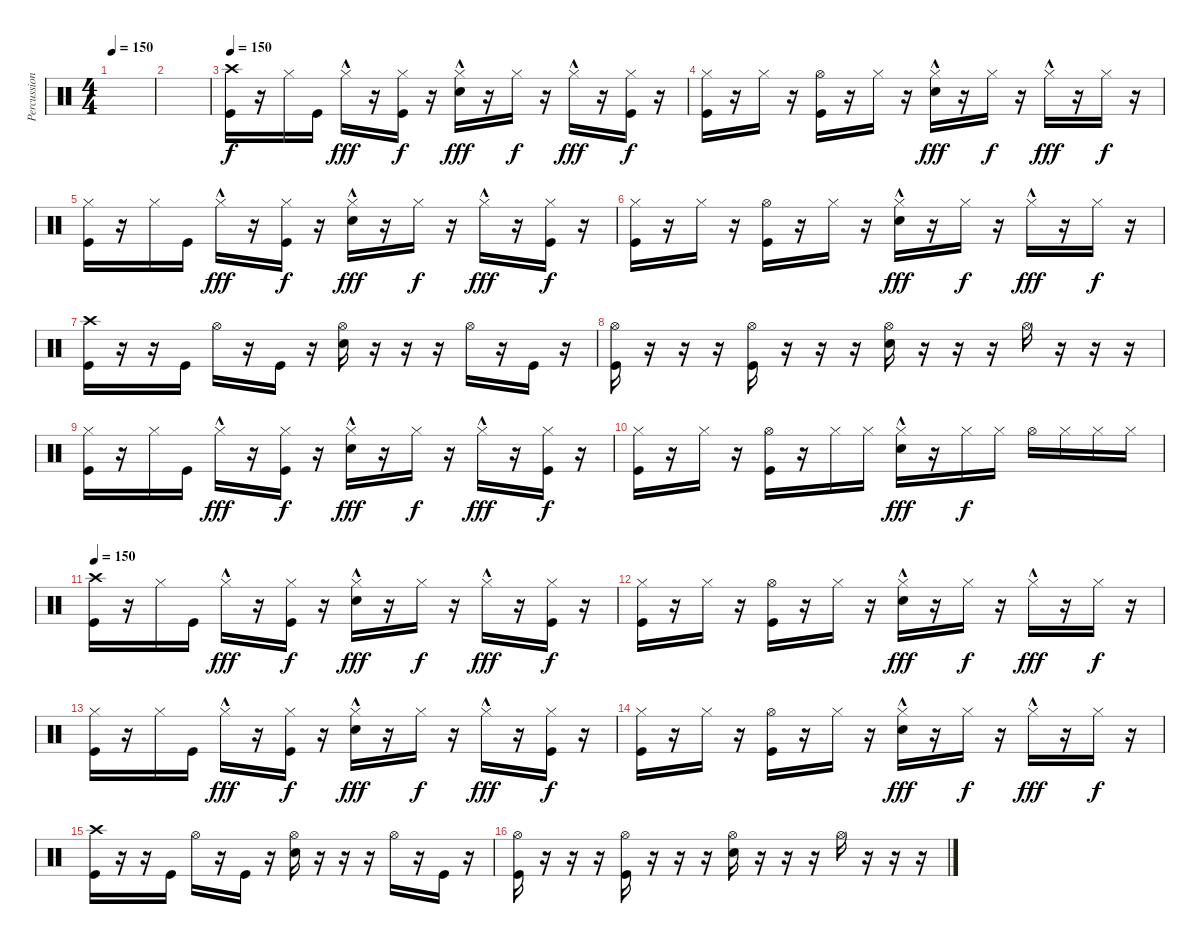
\track ("Percussion" "Percussion") {instrument percussion}
\staff {score}
\articulation defaults
\ts (4 4)
\tempo 150
\clef neutral
\ks c
|
|
\tempo 150
("Crash high (hit)" "Kick (hit)").16 r.16 "Hi-Hat (closed)".16 "Kick (hit)".16 "Hi-Hat (closed)"{hac}.16{dy fff} r.16 ("Hi-Hat (closed)" "Kick (hit)").16{dy f} r.16 ("Hi-Hat (closed)"{hac} "Electric Snare (hit)").16{dy fff} r.16 "Hi-Hat (closed)".16{dy f} r.16 "Hi-Hat (closed)"{hac}.16{dy fff} r.16 ("Hi-Hat (closed)" "Kick (hit)").16{dy f} r.16 |
("Hi-Hat (closed)" "Kick (hit)").16 r.16 "Hi-Hat (closed)".16 r.16 ("Hi-Hat (open)" "Kick (hit)").16 r.16 "Hi-Hat (closed)".16 r.16 ("Hi-Hat (closed)"{hac} "Electric Snare (hit)").16{dy fff} r.16 "Hi-Hat (closed)".16{dy f} r.16 "Hi-Hat (closed)"{hac}.16{dy fff} r.16 "Hi-Hat (closed)".16{dy f} r.16 |
("Hi-Hat (closed)" "Kick (hit)").16 r.16 "Hi-Hat (closed)".16 "Kick (hit)".16 "Hi-Hat (closed)"{hac}.16{dy fff} r.16 ("Hi-Hat (closed)" "Kick (hit)").16{dy f} r.16 ("Hi-Hat (closed)"{hac} "Electric Snare (hit)").16{dy fff} r.16 "Hi-Hat (closed)".16{dy f} r.16 "Hi-Hat (closed)"{hac}.16{dy fff} r.16 ("Hi-Hat (closed)" "Kick (hit)").16{dy f} r.16 |
("Hi-Hat (closed)" "Kick (hit)").16 r.16 "Hi-Hat (closed)".16 r.16 ("Hi-Hat (open)" "Kick (hit)").16 r.16 "Hi-Hat (closed)".16 r.16 ("Hi-Hat (closed)"{hac} "Electric Snare (hit)").16{dy fff} r.16 "Hi-Hat (closed)".16{dy f} r.16 "Hi-Hat (closed)"{hac}.16{dy fff} r.16 "Hi-Hat (closed)".16{dy f} r.16 |
("Crash high (hit)" "Kick (hit)").16 r.16 r.16 "Kick (hit)".16 "Hi-Hat (open)".16 r.16 "Kick (hit)".16 r.16 ("Hi-Hat (open)" "Electric Snare (hit)").16 r.16 r.16 r.16 "Hi-Hat (open)".16 r.16 "Kick (hit)".16 r.16 |
("Hi-Hat (open)" "Kick (hit)").16 r.16 r.16 r.16 ("Hi-Hat (open)" "Kick (hit)").16 r.16 r.16 r.16 ("Hi-Hat (open)" "Electric Snare (hit)").16 r.16 r.16 r.16 "Hi-Hat (open)".16 r.16 r.16 r.16 |
("Hi-Hat (closed)" "Kick (hit)").16 r.16 "Hi-Hat (closed)".16 "Kick (hit)".16 "Hi-Hat (closed)"{hac}.16{dy fff} r.16 ("Hi-Hat (closed)" "Kick (hit)").16{dy f} r.16 ("Hi-Hat (closed)"{hac} "Electric Snare (hit)").16{dy fff} r.16 "Hi-Hat (closed)".16{dy f} r.16 "Hi-Hat (closed)"{hac}.16{dy fff} r.16 ("Hi-Hat (closed)" "Kick (hit)").16{dy f} r.16 |
("Hi-Hat (closed)" "Kick (hit)").16 r.16 "Hi-Hat (closed)".16 r.16 ("Hi-Hat (open)" "Kick (hit)").16 r.16 "Hi-Hat (closed)".16 "Hi-Hat (closed)".16 ("Hi-Hat (closed)"{hac} "Electric Snare (hit)").16{dy fff} r.16 "Hi-Hat (closed)".16{dy f} "Hi-Hat (closed)".16 "Hi-Hat (open)".16 "Hi-Hat (closed)".16 "Hi-Hat (closed)".16 "Hi-Hat (closed)".16 |
\tempo 150
("Crash high (hit)" "Kick (hit)").16 r.16 "Hi-Hat (closed)".16 "Kick (hit)".16 "Hi-Hat (closed)"{hac}.16{dy fff} r.16 ("Hi-Hat (closed)" "Kick (hit)").16{dy f} r.16 ("Hi-Hat (closed)"{hac} "Electric Snare (hit)").16{dy fff} r.16 "Hi-Hat (closed)".16{dy f} r.16 "Hi-Hat (closed)"{hac}.16{dy fff} r.16 ("Hi-Hat (closed)" "Kick (hit)").16{dy f} r.16 |
("Hi-Hat (closed)" "Kick (hit)").16 r.16 "Hi-Hat (closed)".16 r.16 ("Hi-Hat (open)" "Kick (hit)").16 r.16 "Hi-Hat (closed)".16 r.16 ("Hi-Hat (closed)"{hac} "Electric Snare (hit)").16{dy fff} r.16 "Hi-Hat (closed)".16{dy f} r.16 "Hi-Hat (closed)"{hac}.16{dy fff} r.16 "Hi-Hat (closed)".16{dy f} r.16 |
("Hi-Hat (closed)" "Kick (hit)").16 r.16 "Hi-Hat (closed)".16 "Kick (hit)".16 "Hi-Hat (closed)"{hac}.16{dy fff} r.16 ("Hi-Hat (closed)" "Kick (hit)").16{dy f} r.16 ("Hi-Hat (closed)"{hac} "Electric Snare (hit)").16{dy fff} r.16 "Hi-Hat (closed)".16{dy f} r.16 "Hi-Hat (closed)"{hac}.16{dy fff} r.16 ("Hi-Hat (closed)" "Kick (hit)").16{dy f} r.16 |
("Hi-Hat (closed)" "Kick (hit)").16 r.16 "Hi-Hat (closed)".16 r.16 ("Hi-Hat (open)" "Kick (hit)").16 r.16 "Hi-Hat (closed)".16 r.16 ("Hi-Hat (closed)"{hac} "Electric Snare (hit)").16{dy fff} r.16 "Hi-Hat (closed)".16{dy f} r.16 "Hi-Hat (closed)"{hac}.16{dy fff} r.16 "Hi-Hat (closed)".16{dy f} r.16 |
("Crash high (hit)" "Kick (hit)").16 r.16 r.16 "Kick (hit)".16 "Hi-Hat (open)".16 r.16 "Kick (hit)".16 r.16 ("Hi-Hat (open)" "Electric Snare (hit)").16 r.16 r.16 r.16 "Hi-Hat (open)".16 r.16 "Kick (hit)".16 r.16 |
("Hi-Hat (open)" "Kick (hit)").16 r.16 r.16 r.16 ("Hi-Hat (open)" "Kick (hit)").16 r.16 r.16 r.16 ("Hi-Hat (open)" "Electric Snare (hit)").16 r.16 r.16 r.16 "Hi-Hat (open)".16 r.16 r.16 r.16
